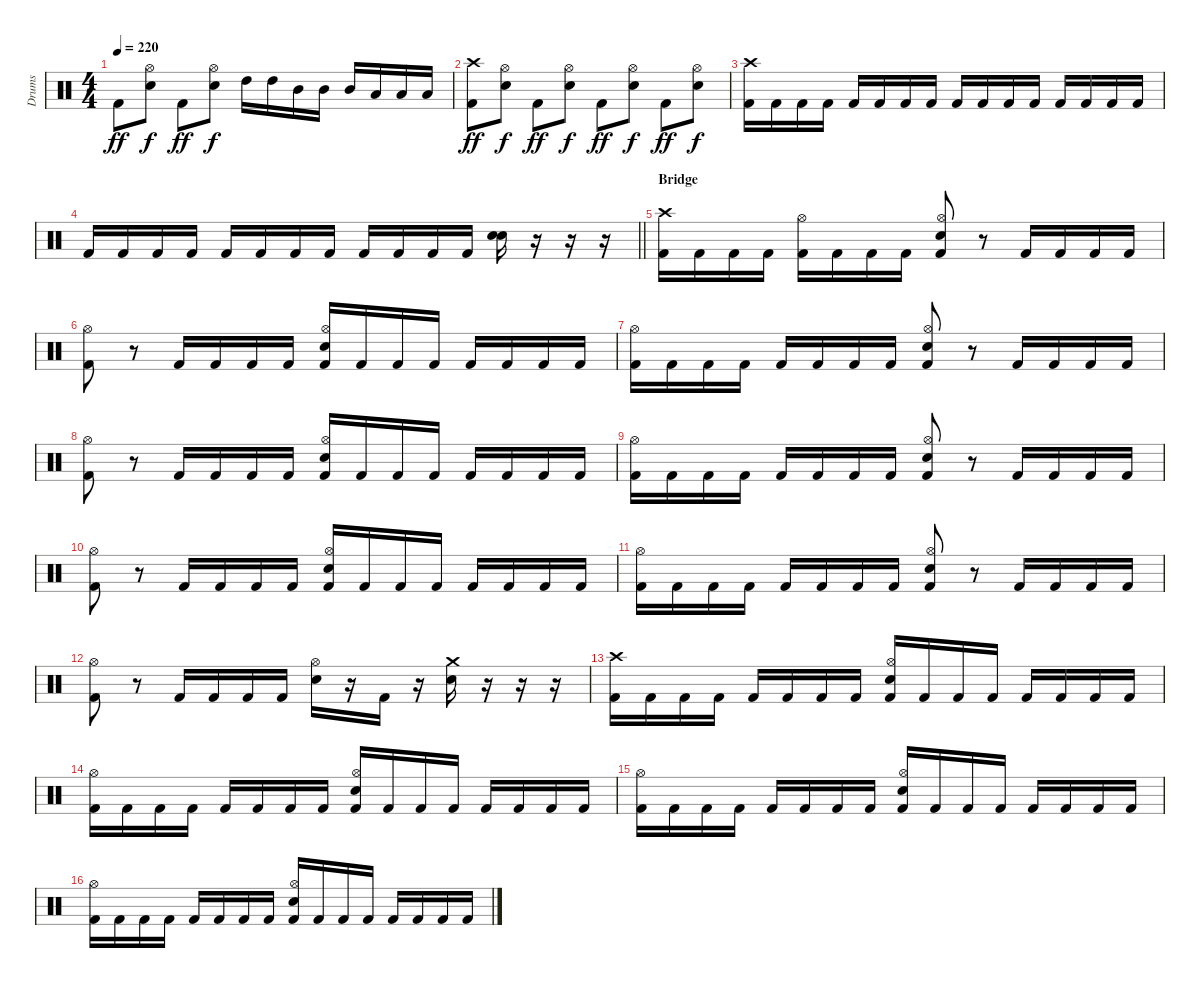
\track ("Drums" "Drums") {instrument percussion}
\staff {score}
\articulation defaults
\ts (4 4)
\tempo 220
\clef neutral
\ks c "Kick (hit) 2".8{dy ff}
("Hi-Hat (open)" "Electric Snare (hit)").8{dy f} "Kick (hit) 2".8{dy ff} ("Hi-Hat (open)" "Electric Snare (hit)").8{dy f} "High Tom (hit)".16 "High Tom (hit)".16 "Mid Tom (hit)".16 "Mid Tom (hit)".16 "Mid Tom (hit)".16 "Low Tom (hit)".16 "Low Tom (hit)".16 "Low Tom (hit)".16 |
("Crash high (hit)" "Kick (hit) 2").8{dy ff} ("Hi-Hat (open)" "Electric Snare (hit)").8{dy f} "Kick (hit) 2".8{dy ff} ("Hi-Hat (open)" "Electric Snare (hit)").8{dy f} "Kick (hit) 2".8{dy ff} ("Hi-Hat (open)" "Electric Snare (hit)").8{dy f} "Kick (hit) 2".8{dy ff} ("Hi-Hat (open)" "Electric Snare (hit)").8{dy f} |
("Crash high (hit)" "Kick (hit) 2").16 "Kick (hit) 2".16 "Kick (hit) 2".16 "Kick (hit) 2".16 "Kick (hit) 2".16 "Kick (hit) 2".16 "Kick (hit) 2".16 "Kick (hit) 2".16 "Kick (hit) 2".16 "Kick (hit) 2".16 "Kick (hit) 2".16 "Kick (hit) 2".16 "Kick (hit) 2".16 "Kick (hit) 2".16 "Kick (hit) 2".16 "Kick (hit) 2".16 |
\barLineRight lightlight "Kick (hit) 2".16 "Kick (hit) 2".16 "Kick (hit) 2".16 "Kick (hit) 2".16 "Kick (hit) 2".16 "Kick (hit) 2".16 "Kick (hit) 2".16 "Kick (hit) 2".16 "Kick (hit) 2".16 "Kick (hit) 2".16 "Kick (hit) 2".16 "Kick (hit) 2".16
("Electric Snare (hit)" "Electric Snare (hit)").16 r.16 r.16 r.16 |
\section ("" "Bridge")
("Crash high (hit)" "Kick (hit) 2").16 "Kick (hit) 2".16 "Kick (hit) 2".16 "Kick (hit) 2".16 ("Hi-Hat (open)" "Kick (hit) 2").16 "Kick (hit) 2".16 "Kick (hit) 2".16 "Kick (hit) 2".16 ("Hi-Hat (open)" "Electric Snare (hit)" "Kick (hit) 2").8 r.8 "Kick (hit) 2".16 "Kick (hit) 2".16 "Kick (hit) 2".16 "Kick (hit) 2".16 |
("Hi-Hat (open)" "Kick (hit) 2").8 r.8 "Kick (hit) 2".16 "Kick (hit) 2".16 "Kick (hit) 2".16 "Kick (hit) 2".16 ("Hi-Hat (open)" "Electric Snare (hit)" "Kick (hit) 2").16 "Kick (hit) 2".16 "Kick (hit) 2".16 "Kick (hit) 2".16 "Kick (hit) 2".16 "Kick (hit) 2".16 "Kick (hit) 2".16 "Kick (hit) 2".16 |
("Hi-Hat (open)" "Kick (hit) 2").16 "Kick (hit) 2".16 "Kick (hit) 2".16 "Kick (hit) 2".16 "Kick (hit) 2".16 "Kick (hit) 2".16 "Kick (hit) 2".16 "Kick (hit) 2".16 ("Hi-Hat (open)" "Electric Snare (hit)" "Kick (hit) 2").8 r.8 "Kick (hit) 2".16 "Kick (hit) 2".16 "Kick (hit) 2".16 "Kick (hit) 2".16 |
("Hi-Hat (open)" "Kick (hit) 2").8 r.8 "Kick (hit) 2".16 "Kick (hit) 2".16 "Kick (hit) 2".16 "Kick (hit) 2".16 ("Hi-Hat (open)" "Electric Snare (hit)" "Kick (hit) 2").16 "Kick (hit) 2".16 "Kick (hit) 2".16 "Kick (hit) 2".16 "Kick (hit) 2".16 "Kick (hit) 2".16 "Kick (hit) 2".16 "Kick (hit) 2".16 |
("Hi-Hat (open)" "Kick (hit) 2").16 "Kick (hit) 2".16 "Kick (hit) 2".16 "Kick (hit) 2".16 "Kick (hit) 2".16 "Kick (hit) 2".16 "Kick (hit) 2".16 "Kick (hit) 2".16 ("Hi-Hat (open)" "Electric Snare (hit)" "Kick (hit) 2").8 r.8 "Kick (hit) 2".16 "Kick (hit) 2".16 "Kick (hit) 2".16 "Kick (hit) 2".16 |
("Hi-Hat (open)" "Kick (hit) 2").8 r.8 "Kick (hit) 2".16 "Kick (hit) 2".16 "Kick (hit) 2".16 "Kick (hit) 2".16 ("Hi-Hat (open)" "Electric Snare (hit)" "Kick (hit) 2").16 "Kick (hit) 2".16 "Kick (hit) 2".16 "Kick (hit) 2".16 "Kick (hit) 2".16 "Kick (hit) 2".16 "Kick (hit) 2".16 "Kick (hit) 2".16 |
("Hi-Hat (open)" "Kick (hit) 2").16 "Kick (hit) 2".16 "Kick (hit) 2".16 "Kick (hit) 2".16 "Kick (hit) 2".16 "Kick (hit) 2".16 "Kick (hit) 2".16 "Kick (hit) 2".16 ("Hi-Hat (open)" "Electric Snare (hit)" "Kick (hit) 2").8 r.8 "Kick (hit) 2".16 "Kick (hit) 2".16 "Kick (hit) 2".16 "Kick (hit) 2".16 |
("Hi-Hat (open)" "Kick (hit) 2").8 r.8 "Kick (hit) 2".16 "Kick (hit) 2".16 "Kick (hit) 2".16 "Kick (hit) 2".16 ("Hi-Hat (open)" "Electric Snare (hit)").16 r.16 "Kick (hit) 2".16 r.16 ("Crash medium (hit)" "Electric Snare (hit)").16 r.16 r.16 r.16 |
("Crash high (hit)" "Kick (hit) 2").16 "Kick (hit) 2".16 "Kick (hit) 2".16 "Kick (hit) 2".16 "Kick (hit) 2".16 "Kick (hit) 2".16 "Kick (hit) 2".16 "Kick (hit) 2".16 ("Hi-Hat (open)" "Electric Snare (hit)" "Kick (hit) 2").16 "Kick (hit) 2".16 "Kick (hit) 2".16 "Kick (hit) 2".16 "Kick (hit) 2".16 "Kick (hit) 2".16 "Kick (hit) 2".16 "Kick (hit) 2".16 |
("Hi-Hat (open)" "Kick (hit) 2").16 "Kick (hit) 2".16 "Kick (hit) 2".16 "Kick (hit) 2".16 "Kick (hit) 2".16 "Kick (hit) 2".16 "Kick (hit) 2".16 "Kick (hit) 2".16 ("Hi-Hat (open)" "Electric Snare (hit)" "Kick (hit) 2").16 "Kick (hit) 2".16 "Kick (hit) 2".16 "Kick (hit) 2".16 "Kick (hit) 2".16 "Kick (hit) 2".16 "Kick (hit) 2".16 "Kick (hit) 2".16 |
("Hi-Hat (open)" "Kick (hit) 2").16 "Kick (hit) 2".16 "Kick (hit) 2".16 "Kick (hit) 2".16 "Kick (hit) 2".16 "Kick (hit) 2".16 "Kick (hit) 2".16 "Kick (hit) 2".16 ("Hi-Hat (open)" "Electric Snare (hit)" "Kick (hit) 2").16 "Kick (hit) 2".16 "Kick (hit) 2".16 "Kick (hit) 2".16 "Kick (hit) 2".16 "Kick (hit) 2".16 "Kick (hit) 2".16 "Kick (hit) 2".16 |
("Hi-Hat (open)" "Kick (hit) 2").16 "Kick (hit) 2".16 "Kick (hit) 2".16 "Kick (hit) 2".16 "Kick (hit) 2".16 "Kick (hit) 2".16 "Kick (hit) 2".16 "Kick (hit) 2".16 ("Hi-Hat (open)" "Electric Snare (hit)" "Kick (hit) 2").16 "Kick (hit) 2".16 "Kick (hit) 2".16 "Kick (hit) 2".16 "Kick (hit) 2".16 "Kick (hit) 2".16 "Kick (hit) 2".16 "Kick (hit) 2".16
